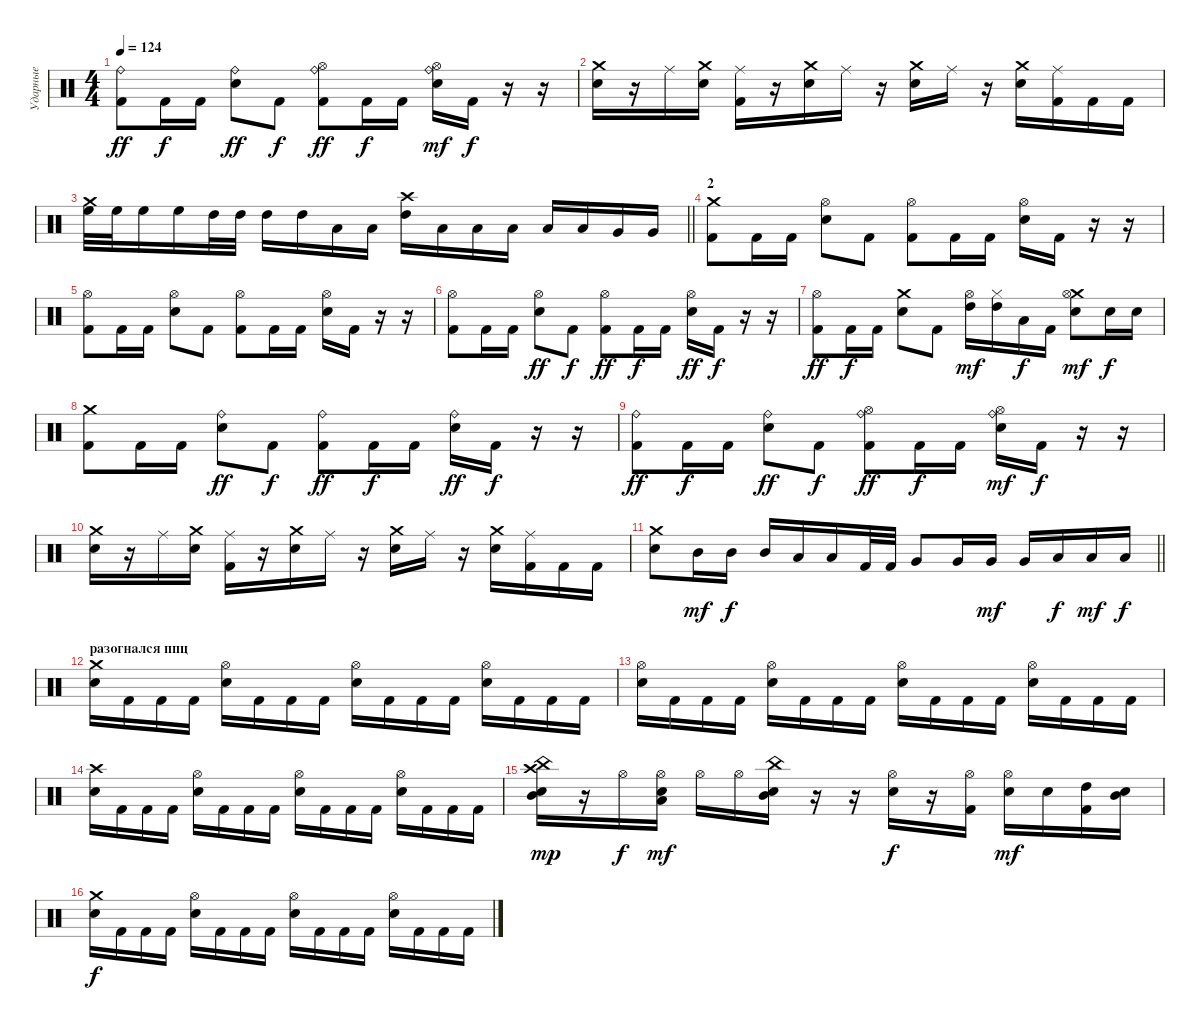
\track ("Ударные" "Ударные") {instrument percussion bank 127}
\staff
\articulation defaults
\ts (4 4)
\tempo 124
\clef neutral
\ks c
("Ride (bell)" "Kick (hit) 2").8{dy ff} "Kick (hit) 2".16{dy f} "Kick (hit) 2".16 ("Ride (bell)" "Snare (hit) 2").8{dy ff} "Kick (hit) 2".8{dy f} ("Hi-Hat (open)" "Ride (bell)" "Kick (hit) 2").8{dy ff} "Kick (hit) 2".16{dy f} "Kick (hit) 2".16 ("Ride (bell)" "Hi-Hat (open)" "Snare (hit) 2").16{dy mf} "Kick (hit) 2".16{dy f} r.16 r.16 |
("Crash medium (hit)" "Snare (hit) 2").16 r.16 "Ride (middle)".16 ("Crash medium (hit)" "Snare (hit) 2").16 ("Ride (middle)" "Kick (hit) 2").16 r.16 ("Crash medium (hit)" "Snare (hit) 2").16 "Ride (middle)".16 r.16 ("Crash medium (hit)" "Snare (hit) 2").16 "Ride (middle)".16 r.16 ("Crash medium (hit)" "Snare (hit) 2").16 ("Ride (middle)" "Kick (hit) 2").16 "Kick (hit) 2".16 "Kick (hit) 2".16 |
\barLineRight lightlight
("Crash medium (hit)" "High Floor Tom (hit)").32 "High Floor Tom (hit)".32 "High Floor Tom (hit)".16 "High Floor Tom (hit)".16 "High Tom (hit)".32 "High Tom (hit)".32 "High Tom (hit)".16 "High Tom (hit)".16 "Low Tom (hit)".16 "Low Tom (hit)".16 ("Crash high (hit)" "High Tom (hit)").16 "Low Tom (hit)".16 "Low Tom (hit)".16 "Low Tom (hit)".16 "Low Tom (hit)".16 "Low Tom (hit)".16 "Very Low Tom (hit)".16 "Very Low Tom (hit)".16 |
\section ("" "2")
("Crash medium (hit)" "Kick (hit) 2").8 "Kick (hit) 2".16 "Kick (hit) 2".16 ("Hi-Hat (open)" "Snare (hit) 2").8 "Kick (hit) 2".8 ("Hi-Hat (open)" "Kick (hit) 2").8 "Kick (hit) 2".16 "Kick (hit) 2".16 ("Hi-Hat (open)" "Snare (hit) 2").16 "Kick (hit) 2".16 r.16 r.16 |
("Hi-Hat (open)" "Kick (hit) 2").8 "Kick (hit) 2".16 "Kick (hit) 2".16 ("Hi-Hat (open)" "Snare (hit) 2").8 "Kick (hit) 2".8 ("Hi-Hat (open)" "Kick (hit) 2").8 "Kick (hit) 2".16 "Kick (hit) 2".16 ("Hi-Hat (open)" "Snare (hit) 2").16 "Kick (hit) 2".16 r.16 r.16 |
("Hi-Hat (open)" "Kick (hit) 2").8 "Kick (hit) 2".16 "Kick (hit) 2".16 ("Hi-Hat (open)" "Snare (hit) 2").8{dy ff} "Kick (hit) 2".8{dy f} ("Hi-Hat (open)" "Kick (hit) 2").8{dy ff} "Kick (hit) 2".16{dy f} "Kick (hit) 2".16 ("Hi-Hat (open)" "Snare (hit) 2").16{dy ff} "Kick (hit) 2".16{dy f} r.16 r.16 |
("Hi-Hat (open)" "Kick (hit) 2").8{dy ff} "Kick (hit) 2".16{dy f} "Kick (hit) 2".16 ("Crash medium (hit)" "Snare (hit) 2").8 "Kick (hit) 2".8 ("High Tom (hit)" "Hi-Hat (open)").16{dy mf} ("High Tom (hit)" "Hi-Hat (closed)").16 "Low Tom (hit)".16{dy f} "Kick (hit) 2".16 ("Snare (hit) 2" "Crash medium (hit)" "Hi-Hat (open)").8{dy mf} "Snare (hit) 2".16{dy f} "Snare (hit) 2".16 |
("Crash medium (hit)" "Kick (hit) 2").8 "Kick (hit) 2".16 "Kick (hit) 2".16 ("Ride (bell)" "Snare (hit) 2").8{dy ff} "Kick (hit) 2".8{dy f} ("Ride (bell)" "Kick (hit) 2").8{dy ff} "Kick (hit) 2".16{dy f} "Kick (hit) 2".16 ("Ride (bell)" "Snare (hit) 2").16{dy ff} "Kick (hit) 2".16{dy f} r.16 r.16 |
("Ride (bell)" "Kick (hit) 2").8{dy ff} "Kick (hit) 2".16{dy f} "Kick (hit) 2".16 ("Ride (bell)" "Snare (hit) 2").8{dy ff} "Kick (hit) 2".8{dy f} ("Hi-Hat (open)" "Ride (bell)" "Kick (hit) 2").8{dy ff} "Kick (hit) 2".16{dy f} "Kick (hit) 2".16 ("Ride (bell)" "Hi-Hat (open)" "Snare (hit) 2").16{dy mf} "Kick (hit) 2".16{dy f} r.16 r.16 |
("Crash medium (hit)" "Snare (hit) 2").16 r.16 "Ride (middle)".16 ("Crash medium (hit)" "Snare (hit) 2").16 ("Ride (middle)" "Kick (hit) 2").16 r.16 ("Crash medium (hit)" "Snare (hit) 2").16 "Ride (middle)".16 r.16 ("Crash medium (hit)" "Snare (hit) 2").16 "Ride (middle)".16 r.16 ("Crash medium (hit)" "Snare (hit) 2").16 ("Ride (middle)" "Kick (hit) 2").16 "Kick (hit) 2".16 "Kick (hit) 2".16 |
\barLineRight lightlight
("Crash medium (hit)" "Snare (hit) 2").8 "Mid Tom (hit)".16{dy mf} "Mid Tom (hit)".16{dy f} "Mid Tom (hit)".16 "Low Tom (hit)".16 "Low Tom (hit)".16 "Kick (hit) 2".32 "Kick (hit) 2".32 "Very Low Tom (hit)".8 "Very Low Tom (hit)".16 "Very Low Tom (hit)".16{dy mf} "Very Low Tom (hit)".16 "Low Floor Tom (hit)".16{dy f} "Low Floor Tom (hit)".16{dy mf} "Low Floor Tom (hit)".16{dy f} |
\section ("" "разогнался ппц")
("Crash medium (hit)" "Snare (hit) 2").16 "Kick (hit) 2".16 "Kick (hit) 2".16 "Kick (hit) 2".16 ("Hi-Hat (open)" "Snare (hit) 2").16 "Kick (hit) 2".16 "Kick (hit) 2".16 "Kick (hit) 2".16 ("Hi-Hat (open)" "Snare (hit) 2").16 "Kick (hit) 2".16 "Kick (hit) 2".16 "Kick (hit) 2".16 ("Hi-Hat (open)" "Snare (hit) 2").16 "Kick (hit) 2".16 "Kick (hit) 2".16 "Kick (hit) 2".16 |
("Hi-Hat (open)" "Snare (hit) 2").16 "Kick (hit) 2".16 "Kick (hit) 2".16 "Kick (hit) 2".16 ("Hi-Hat (open)" "Snare (hit) 2").16 "Kick (hit) 2".16 "Kick (hit) 2".16 "Kick (hit) 2".16 ("Hi-Hat (open)" "Snare (hit) 2").16 "Kick (hit) 2".16 "Kick (hit) 2".16 "Kick (hit) 2".16 ("Hi-Hat (open)" "Snare (hit) 2").16 "Kick (hit) 2".16 "Kick (hit) 2".16 "Kick (hit) 2".16 |
("Crash high (hit)" "Snare (hit) 2").16 "Kick (hit) 2".16 "Kick (hit) 2".16 "Kick (hit) 2".16 ("Hi-Hat (open)" "Snare (hit) 2").16 "Kick (hit) 2".16 "Kick (hit) 2".16 "Kick (hit) 2".16 ("Hi-Hat (open)" "Snare (hit) 2").16 "Kick (hit) 2".16 "Kick (hit) 2".16 "Kick (hit) 2".16 ("Hi-Hat (open)" "Snare (hit) 2").16 "Kick (hit) 2".16 "Kick (hit) 2".16 "Kick (hit) 2".16 |
("Crash high (hit)" "Snare (hit) 2" "China (hit)" "Mid Tom (hit)").16{dy mp} r.16 "Hi-Hat (open)".16{dy f} ("Hi-Hat (open)" "Snare (hit) 2" "Low Tom (hit)").16{dy mf} "Hi-Hat (open)".16 "Hi-Hat (open)".16 ("China (hit)" "Snare (hit) 2" "Mid Tom (hit)").16 r.16 r.16 ("Hi-Hat (open)" "Snare (hit) 2").16{dy f} r.16 ("Hi-Hat (open)" "Kick (hit) 2").16 ("Hi-Hat (open)" "Snare (hit) 2").16{dy mf} "Snare (hit) 2".16 ("Kick (hit) 2" "High Tom (hit)").16 ("Snare (hit) 2" "Mid Tom (hit)").16 |
("Crash medium (hit)" "Snare (hit) 2").16{dy f} "Kick (hit) 2".16 "Kick (hit) 2".16 "Kick (hit) 2".16 ("Hi-Hat (open)" "Snare (hit) 2").16 "Kick (hit) 2".16 "Kick (hit) 2".16 "Kick (hit) 2".16 ("Hi-Hat (open)" "Snare (hit) 2").16 "Kick (hit) 2".16 "Kick (hit) 2".16 "Kick (hit) 2".16 ("Hi-Hat (open)" "Snare (hit) 2").16 "Kick (hit) 2".16 "Kick (hit) 2".16 "Kick (hit) 2".16
